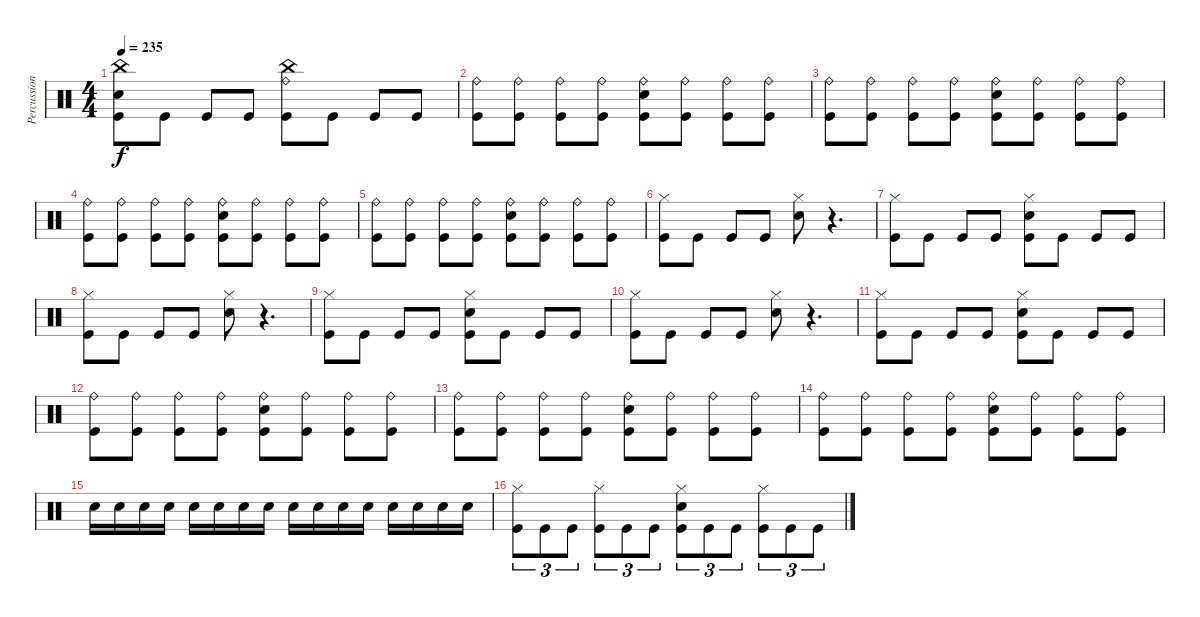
\track ("Percussion" "Percussion") {instrument percussion}
\staff {score}
\articulation defaults
\ts (4 4)
\tempo 235
\clef neutral
\ks c
("Kick (hit)" "Snare (hit) 2" "China (hit)").8{dy f} "Kick (hit)".8 "Kick (hit)".8 "Kick (hit)".8 ("Kick (hit)" "Ride (bell)" "China (hit)").8 "Kick (hit)".8 "Kick (hit)".8 "Kick (hit)".8 |
("Kick (hit)" "Ride (bell)").8 ("Kick (hit)" "Ride (bell)").8 ("Kick (hit)" "Ride (bell)").8 ("Kick (hit)" "Ride (bell)").8 ("Kick (hit)" "Ride (bell)" "Snare (hit) 2").8 ("Kick (hit)" "Ride (bell)").8 ("Kick (hit)" "Ride (bell)").8 ("Kick (hit)" "Ride (bell)").8 |
("Kick (hit)" "Ride (bell)").8 ("Kick (hit)" "Ride (bell)").8 ("Kick (hit)" "Ride (bell)").8 ("Kick (hit)" "Ride (bell)").8 ("Kick (hit)" "Ride (bell)" "Snare (hit) 2").8 ("Kick (hit)" "Ride (bell)").8 ("Kick (hit)" "Ride (bell)").8 ("Kick (hit)" "Ride (bell)").8 |
("Kick (hit)" "Ride (bell)").8 ("Kick (hit)" "Ride (bell)").8 ("Kick (hit)" "Ride (bell)").8 ("Kick (hit)" "Ride (bell)").8 ("Kick (hit)" "Ride (bell)" "Snare (hit) 2").8 ("Kick (hit)" "Ride (bell)").8 ("Kick (hit)" "Ride (bell)").8 ("Kick (hit)" "Ride (bell)").8 |
("Kick (hit)" "Ride (bell)").8 ("Kick (hit)" "Ride (bell)").8 ("Kick (hit)" "Ride (bell)").8 ("Kick (hit)" "Ride (bell)").8 ("Kick (hit)" "Ride (bell)" "Snare (hit) 2").8 ("Kick (hit)" "Ride (bell)").8 ("Kick (hit)" "Ride (bell)").8 ("Kick (hit)" "Ride (bell)").8 |
("Kick (hit)" "Hi-Hat (closed)").8 "Kick (hit)".8 "Kick (hit)".8 "Kick (hit)".8 ("Hi-Hat (closed)" "Snare (hit) 2").8 r.4{d} |
("Kick (hit)" "Hi-Hat (closed)").8 "Kick (hit)".8 "Kick (hit)".8 "Kick (hit)".8 ("Kick (hit)" "Hi-Hat (closed)" "Snare (hit) 2").8 "Kick (hit)".8 "Kick (hit)".8 "Kick (hit)".8 |
("Kick (hit)" "Hi-Hat (closed)").8 "Kick (hit)".8 "Kick (hit)".8 "Kick (hit)".8 ("Hi-Hat (closed)" "Snare (hit) 2").8 r.4{d} |
("Kick (hit)" "Hi-Hat (closed)").8 "Kick (hit)".8 "Kick (hit)".8 "Kick (hit)".8 ("Kick (hit)" "Hi-Hat (closed)" "Snare (hit) 2").8 "Kick (hit)".8 "Kick (hit)".8 "Kick (hit)".8 |
("Kick (hit)" "Hi-Hat (closed)").8 "Kick (hit)".8 "Kick (hit)".8 "Kick (hit)".8 ("Hi-Hat (closed)" "Snare (hit) 2").8 r.4{d} |
("Kick (hit)" "Hi-Hat (closed)").8 "Kick (hit)".8 "Kick (hit)".8 "Kick (hit)".8 ("Kick (hit)" "Hi-Hat (closed)" "Snare (hit) 2").8 "Kick (hit)".8 "Kick (hit)".8 "Kick (hit)".8 |
("Kick (hit)" "Ride (bell)").8 ("Kick (hit)" "Ride (bell)").8 ("Kick (hit)" "Ride (bell)").8 ("Kick (hit)" "Ride (bell)").8 ("Kick (hit)" "Ride (bell)" "Snare (hit) 2").8 ("Kick (hit)" "Ride (bell)").8 ("Kick (hit)" "Ride (bell)").8 ("Kick (hit)" "Ride (bell)").8 |
("Kick (hit)" "Ride (bell)").8 ("Kick (hit)" "Ride (bell)").8 ("Kick (hit)" "Ride (bell)").8 ("Kick (hit)" "Ride (bell)").8 ("Kick (hit)" "Ride (bell)" "Snare (hit) 2").8 ("Kick (hit)" "Ride (bell)").8 ("Kick (hit)" "Ride (bell)").8 ("Kick (hit)" "Ride (bell)").8 |
("Kick (hit)" "Ride (bell)").8 ("Kick (hit)" "Ride (bell)").8 ("Kick (hit)" "Ride (bell)").8 ("Kick (hit)" "Ride (bell)").8 ("Kick (hit)" "Ride (bell)" "Snare (hit) 2").8 ("Kick (hit)" "Ride (bell)").8 ("Kick (hit)" "Ride (bell)").8 ("Kick (hit)" "Ride (bell)").8 |
"Snare (hit) 2".16 "Snare (hit) 2".16 "Snare (hit) 2".16 "Snare (hit) 2".16 "Snare (hit) 2".16 "Snare (hit) 2".16 "Snare (hit) 2".16 "Snare (hit) 2".16 "Snare (hit) 2".16 "Snare (hit) 2".16 "Snare (hit) 2".16 "Snare (hit) 2".16 "Snare (hit) 2".16 "Snare (hit) 2".16 "Snare (hit) 2".16 "Snare (hit) 2".16 |
("Kick (hit)" "Hi-Hat (closed)").8{tu (3 2)} "Kick (hit)".8{tu (3 2)} "Kick (hit)".8{tu (3 2)} ("Kick (hit)" "Hi-Hat (closed)").8{tu (3 2)} "Kick (hit)".8{tu (3 2)} "Kick (hit)".8{tu (3 2)} ("Kick (hit)" "Hi-Hat (closed)" "Snare (hit) 2").8{tu (3 2)} "Kick (hit)".8{tu (3 2)} "Kick (hit)".8{tu (3 2)} ("Kick (hit)" "Hi-Hat (closed)").8{tu (3 2)} "Kick (hit)".8{tu (3 2)} "Kick (hit)".8{tu (3 2)}
